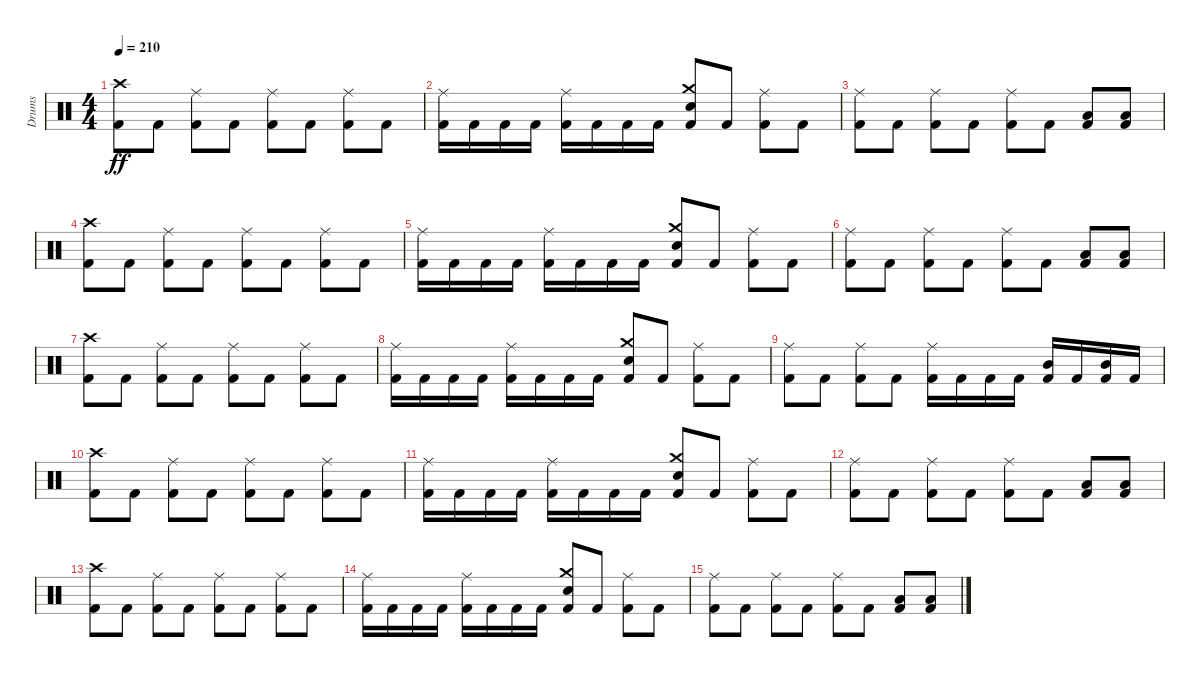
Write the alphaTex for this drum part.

\track ("Drums" "Drums") {instrument percussion}
\staff {score}
\articulation defaults
\ts (4 4)
\tempo 210
\clef neutral
\ks c
("Crash high (hit)" "Kick (hit) 2").8{dy ff} "Kick (hit) 2".8 ("Ride (middle)" "Kick (hit) 2").8 "Kick (hit) 2".8 ("Ride (middle)" "Kick (hit) 2").8 "Kick (hit) 2".8 ("Ride (middle)" "Kick (hit) 2").8 "Kick (hit) 2".8 |
("Ride (middle)" "Kick (hit) 2").16 "Kick (hit) 2".16 "Kick (hit) 2".16 "Kick (hit) 2".16 ("Ride (middle)" "Kick (hit) 2").16 "Kick (hit) 2".16 "Kick (hit) 2".16 "Kick (hit) 2".16 ("Crash medium (hit)" "Snare (hit) 2" "Kick (hit) 2").8 "Kick (hit) 2".8 ("Ride (middle)" "Kick (hit) 2").8 "Kick (hit) 2".8 |
("Ride (middle)" "Kick (hit) 2").8 "Kick (hit) 2".8 ("Ride (middle)" "Kick (hit) 2").8 "Kick (hit) 2".8 ("Ride (middle)" "Kick (hit) 2").8 "Kick (hit) 2".8 ("Low Tom (hit)" "Kick (hit) 2").8 ("Low Tom (hit)" "Kick (hit) 2").8 |
("Crash high (hit)" "Kick (hit) 2").8{volume 10} "Kick (hit) 2".8 ("Ride (middle)" "Kick (hit) 2").8 "Kick (hit) 2".8 ("Ride (middle)" "Kick (hit) 2").8 "Kick (hit) 2".8 ("Ride (middle)" "Kick (hit) 2").8 "Kick (hit) 2".8 |
("Ride (middle)" "Kick (hit) 2").16{volume 8} "Kick (hit) 2".16 "Kick (hit) 2".16 "Kick (hit) 2".16 ("Ride (middle)" "Kick (hit) 2").16 "Kick (hit) 2".16 "Kick (hit) 2".16 "Kick (hit) 2".16 ("Crash medium (hit)" "Snare (hit) 2" "Kick (hit) 2").8 "Kick (hit) 2".8 ("Ride (middle)" "Kick (hit) 2").8 "Kick (hit) 2".8 |
("Ride (middle)" "Kick (hit) 2").8 "Kick (hit) 2".8 ("Ride (middle)" "Kick (hit) 2").8 "Kick (hit) 2".8 ("Ride (middle)" "Kick (hit) 2").8 "Kick (hit) 2".8 ("Low Tom (hit)" "Kick (hit) 2").8 ("Low Tom (hit)" "Kick (hit) 2").8 |
("Crash high (hit)" "Kick (hit) 2").8 "Kick (hit) 2".8 ("Ride (middle)" "Kick (hit) 2").8 "Kick (hit) 2".8 ("Ride (middle)" "Kick (hit) 2").8 "Kick (hit) 2".8 ("Ride (middle)" "Kick (hit) 2").8 "Kick (hit) 2".8 |
("Ride (middle)" "Kick (hit) 2").16{volume 4} "Kick (hit) 2".16 "Kick (hit) 2".16 "Kick (hit) 2".16 ("Ride (middle)" "Kick (hit) 2").16 "Kick (hit) 2".16 "Kick (hit) 2".16 "Kick (hit) 2".16 ("Crash medium (hit)" "Snare (hit) 2" "Kick (hit) 2").8 "Kick (hit) 2".8 ("Ride (middle)" "Kick (hit) 2").8 "Kick (hit) 2".8 |
("Ride (middle)" "Kick (hit) 2").8 "Kick (hit) 2".8 ("Ride (middle)" "Kick (hit) 2").8 "Kick (hit) 2".8 ("Ride (middle)" "Kick (hit) 2").16 "Kick (hit) 2".16 "Kick (hit) 2".16 "Kick (hit) 2".16 ("Mid Tom (hit)" "Kick (hit) 2").16 "Kick (hit) 2".16 ("Mid Tom (hit)" "Kick (hit) 2").16 "Kick (hit) 2".16 |
("Crash high (hit)" "Kick (hit) 2").8 "Kick (hit) 2".8 ("Ride (middle)" "Kick (hit) 2").8 "Kick (hit) 2".8 ("Ride (middle)" "Kick (hit) 2").8 "Kick (hit) 2".8 ("Ride (middle)" "Kick (hit) 2").8 "Kick (hit) 2".8 |
("Ride (middle)" "Kick (hit) 2").16 "Kick (hit) 2".16 "Kick (hit) 2".16 "Kick (hit) 2".16 ("Ride (middle)" "Kick (hit) 2").16 "Kick (hit) 2".16 "Kick (hit) 2".16 "Kick (hit) 2".16 ("Crash medium (hit)" "Snare (hit) 2" "Kick (hit) 2").8 "Kick (hit) 2".8 ("Ride (middle)" "Kick (hit) 2").8 "Kick (hit) 2".8 |
("Ride (middle)" "Kick (hit) 2").8{volume 0} "Kick (hit) 2".8 ("Ride (middle)" "Kick (hit) 2").8 "Kick (hit) 2".8 ("Ride (middle)" "Kick (hit) 2").8 "Kick (hit) 2".8 ("Low Tom (hit)" "Kick (hit) 2").8 ("Low Tom (hit)" "Kick (hit) 2").8 |
("Crash high (hit)" "Kick (hit) 2").8 "Kick (hit) 2".8 ("Ride (middle)" "Kick (hit) 2").8 "Kick (hit) 2".8 ("Ride (middle)" "Kick (hit) 2").8 "Kick (hit) 2".8 ("Ride (middle)" "Kick (hit) 2").8 "Kick (hit) 2".8 |
("Ride (middle)" "Kick (hit) 2").16 "Kick (hit) 2".16 "Kick (hit) 2".16 "Kick (hit) 2".16 ("Ride (middle)" "Kick (hit) 2").16 "Kick (hit) 2".16 "Kick (hit) 2".16 "Kick (hit) 2".16 ("Crash medium (hit)" "Snare (hit) 2" "Kick (hit) 2").8 "Kick (hit) 2".8 ("Ride (middle)" "Kick (hit) 2").8 "Kick (hit) 2".8 |
("Ride (middle)" "Kick (hit) 2").8 "Kick (hit) 2".8 ("Ride (middle)" "Kick (hit) 2").8 "Kick (hit) 2".8 ("Ride (middle)" "Kick (hit) 2").8 "Kick (hit) 2".8 ("Low Tom (hit)" "Kick (hit) 2").8 ("Low Tom (hit)" "Kick (hit) 2").8
